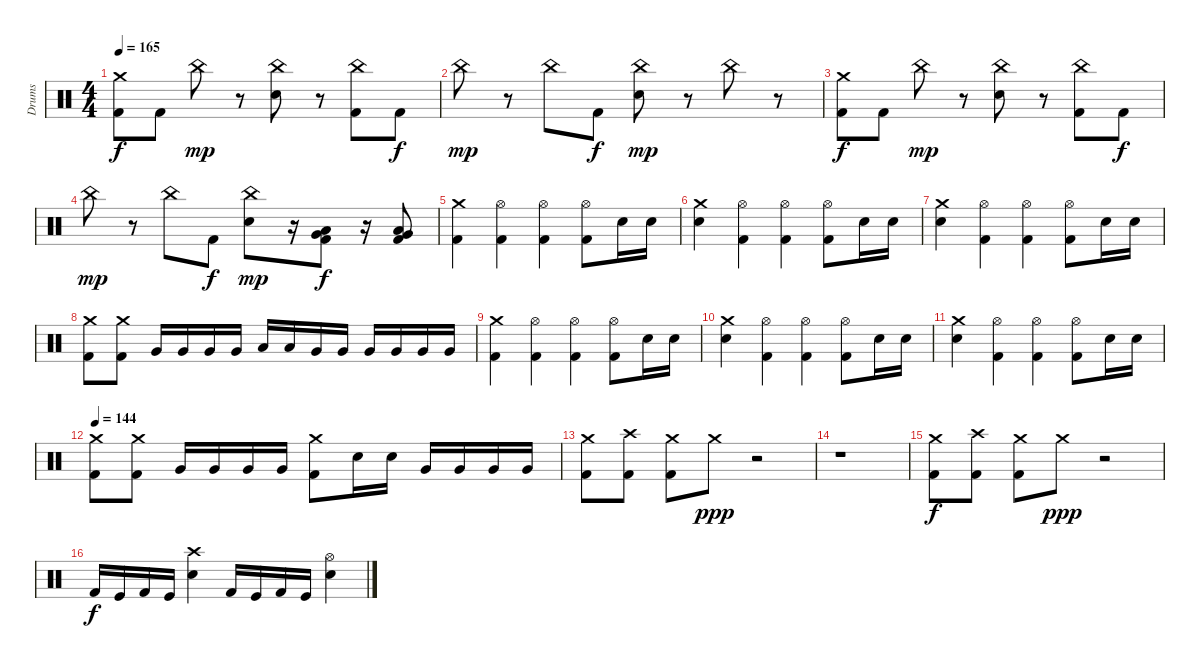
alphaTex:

\track ("Drums" "Drums") {instrument percussion}
\staff
\articulation defaults
\ts (4 4)
\tempo 165
\clef neutral
\ks c
("Crash medium (hit)" "Kick (hit) 2").8{dy f} "Kick (hit) 2".8 "China (hit)".8{dy mp} r.8 ("China (hit)" "Electric Snare (hit)").8 r.8 ("China (hit)" "Kick (hit) 2").8 "Kick (hit) 2".8{dy f} |
"China (hit)".8{dy mp} r.8 "China (hit)".8 "Kick (hit) 2".8{dy f} ("China (hit)" "Electric Snare (hit)").8{dy mp} r.8 "China (hit)".8 r.8 |
("Crash medium (hit)" "Kick (hit) 2").8{dy f} "Kick (hit) 2".8 "China (hit)".8{dy mp} r.8 ("China (hit)" "Electric Snare (hit)").8 r.8 ("China (hit)" "Kick (hit) 2").8 "Kick (hit) 2".8{dy f} |
"China (hit)".8{dy mp} r.8 "China (hit)".8 "Kick (hit) 2".8{dy f} ("China (hit)" "Electric Snare (hit)").8{dy mp} r.16 ("Low Floor Tom (hit)" "Very Low Tom (hit)" "Kick (hit) 2").8{dy f} r.16 ("Low Floor Tom (hit)" "Very Low Tom (hit)" "Kick (hit) 2").8 |
("Crash medium (hit)" "Kick (hit) 2").4 ("Hi-Hat (open)" "Kick (hit) 2").4 ("Hi-Hat (open)" "Kick (hit) 2").4 ("Hi-Hat (open)" "Kick (hit) 2").8 "Electric Snare (hit)".16 "Electric Snare (hit)".16 |
("Crash medium (hit)" "Electric Snare (hit)").4 ("Hi-Hat (open)" "Kick (hit) 2").4 ("Hi-Hat (open)" "Kick (hit) 2").4 ("Hi-Hat (open)" "Kick (hit) 2").8 "Electric Snare (hit)".16 "Electric Snare (hit)".16 |
("Crash medium (hit)" "Electric Snare (hit)").4 ("Hi-Hat (open)" "Kick (hit) 2").4 ("Hi-Hat (open)" "Kick (hit) 2").4 ("Hi-Hat (open)" "Kick (hit) 2").8 "Electric Snare (hit)".16 "Electric Snare (hit)".16 |
("Crash medium (hit)" "Kick (hit) 2").8 ("Crash medium (hit)" "Kick (hit) 2").8 "Very Low Tom (hit)".16 "Very Low Tom (hit)".16 "Very Low Tom (hit)".16 "Very Low Tom (hit)".16 "Low Floor Tom (hit)".16 "Low Floor Tom (hit)".16 "Very Low Tom (hit)".16 "Very Low Tom (hit)".16 "Very Low Tom (hit)".16 "Very Low Tom (hit)".16 "Very Low Tom (hit)".16 "Very Low Tom (hit)".16 |
("Crash medium (hit)" "Kick (hit) 2").4 ("Hi-Hat (open)" "Kick (hit) 2").4 ("Hi-Hat (open)" "Kick (hit) 2").4 ("Hi-Hat (open)" "Kick (hit) 2").8 "Electric Snare (hit)".16 "Electric Snare (hit)".16 |
("Crash medium (hit)" "Electric Snare (hit)").4 ("Hi-Hat (open)" "Kick (hit) 2").4 ("Hi-Hat (open)" "Kick (hit) 2").4 ("Hi-Hat (open)" "Kick (hit) 2").8 "Electric Snare (hit)".16 "Electric Snare (hit)".16 |
("Crash medium (hit)" "Electric Snare (hit)").4 ("Hi-Hat (open)" "Kick (hit) 2").4 ("Hi-Hat (open)" "Kick (hit) 2").4 ("Hi-Hat (open)" "Kick (hit) 2").8 "Electric Snare (hit)".16 "Electric Snare (hit)".16 |
\tempo 144
("Crash medium (hit)" "Kick (hit) 2").8 ("Crash medium (hit)" "Kick (hit) 2").8 "Very Low Tom (hit)".16 "Very Low Tom (hit)".16 "Very Low Tom (hit)".16 "Very Low Tom (hit)".16 ("Crash medium (hit)" "Kick (hit) 2").8 "Electric Snare (hit)".16 "Electric Snare (hit)".16 "Very Low Tom (hit)".16 "Very Low Tom (hit)".16 "Very Low Tom (hit)".16 "Very Low Tom (hit)".16 |
("Crash medium (hit)" "Kick (hit) 2").8 ("Crash high (hit)" "Kick (hit) 2").8 ("Crash medium (hit)" "Kick (hit) 2").8 "Crash medium (hit)".8{dy ppp} r.2 |
r.1 |
("Crash medium (hit)" "Kick (hit) 2").8{dy f} ("Crash high (hit)" "Kick (hit) 2").8 ("Crash medium (hit)" "Kick (hit) 2").8 "Crash medium (hit)".8{dy ppp} r.2 |
"Kick (hit) 2".16{dy f} "Kick (hit)".16 "Kick (hit) 2".16 "Kick (hit)".16 ("Crash high (hit)" "Electric Snare (hit)").4 "Kick (hit) 2".16 "Kick (hit)".16 "Kick (hit) 2".16 "Kick (hit)".16 ("Hi-Hat (open)" "Electric Snare (hit)").4
